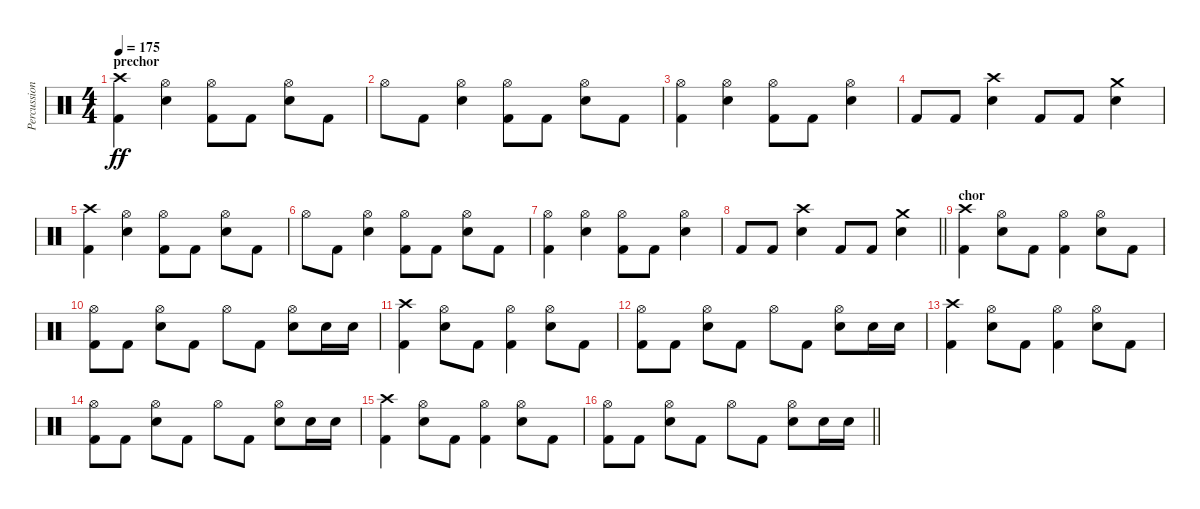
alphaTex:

\track ("Percussion" "Percussion") {instrument percussion}
\staff {score}
\articulation defaults
\ts (4 4)
\section ("" "prechor")
\tempo 175
\clef neutral
\ks c
("Crash high (hit)" "Kick (hit) 2").4{dy ff} ("Hi-Hat (open)" "Snare (hit) 2").4 ("Hi-Hat (open)" "Kick (hit) 2").8 "Kick (hit) 2".8 ("Hi-Hat (open)" "Snare (hit) 2").8 "Kick (hit) 2".8 |
"Hi-Hat (open)".8 "Kick (hit) 2".8 ("Hi-Hat (open)" "Snare (hit) 2").4 ("Hi-Hat (open)" "Kick (hit) 2").8 "Kick (hit) 2".8 ("Hi-Hat (open)" "Snare (hit) 2").8 "Kick (hit) 2".8 |
("Hi-Hat (open)" "Kick (hit) 2").4 ("Hi-Hat (open)" "Snare (hit) 2").4 ("Hi-Hat (open)" "Kick (hit) 2").8 "Kick (hit) 2".8 ("Hi-Hat (open)" "Snare (hit) 2").4 |
"Kick (hit) 2".8 "Kick (hit) 2".8 ("Crash high (hit)" "Snare (hit) 2").4 "Kick (hit) 2".8 "Kick (hit) 2".8 ("Crash medium (hit)" "Snare (hit) 2").4 |
("Crash high (hit)" "Kick (hit) 2").4 ("Hi-Hat (open)" "Snare (hit) 2").4 ("Hi-Hat (open)" "Kick (hit) 2").8 "Kick (hit) 2".8 ("Hi-Hat (open)" "Snare (hit) 2").8 "Kick (hit) 2".8 |
"Hi-Hat (open)".8 "Kick (hit) 2".8 ("Hi-Hat (open)" "Snare (hit) 2").4 ("Hi-Hat (open)" "Kick (hit) 2").8 "Kick (hit) 2".8 ("Hi-Hat (open)" "Snare (hit) 2").8 "Kick (hit) 2".8 |
("Hi-Hat (open)" "Kick (hit) 2").4 ("Hi-Hat (open)" "Snare (hit) 2").4 ("Hi-Hat (open)" "Kick (hit) 2").8 "Kick (hit) 2".8 ("Hi-Hat (open)" "Snare (hit) 2").4 |
\barLineRight lightlight "Kick (hit) 2".8 "Kick (hit) 2".8
("Crash high (hit)" "Snare (hit) 2").4 "Kick (hit) 2".8 "Kick (hit) 2".8 ("Crash medium (hit)" "Snare (hit) 2").4 |
\section ("" "chor")
("Crash high (hit)" "Kick (hit) 2").4 ("Hi-Hat (open)" "Snare (hit) 2").8 "Kick (hit) 2".8 ("Hi-Hat (open)" "Kick (hit) 2").4 ("Hi-Hat (open)" "Snare (hit) 2").8 "Kick (hit) 2".8 |
("Hi-Hat (open)" "Kick (hit) 2").8 "Kick (hit) 2".8 ("Hi-Hat (open)" "Snare (hit) 2").8 "Kick (hit) 2".8 "Hi-Hat (open)".8 "Kick (hit) 2".8 ("Hi-Hat (open)" "Snare (hit) 2").8 "Snare (hit) 2".16 "Snare (hit) 2".16 |
("Crash high (hit)" "Kick (hit) 2").4 ("Hi-Hat (open)" "Snare (hit) 2").8 "Kick (hit) 2".8 ("Hi-Hat (open)" "Kick (hit) 2").4 ("Hi-Hat (open)" "Snare (hit) 2").8 "Kick (hit) 2".8 |
("Hi-Hat (open)" "Kick (hit) 2").8 "Kick (hit) 2".8 ("Hi-Hat (open)" "Snare (hit) 2").8 "Kick (hit) 2".8 "Hi-Hat (open)".8 "Kick (hit) 2".8 ("Hi-Hat (open)" "Snare (hit) 2").8 "Snare (hit) 2".16 "Snare (hit) 2".16 |
("Crash high (hit)" "Kick (hit) 2").4 ("Hi-Hat (open)" "Snare (hit) 2").8 "Kick (hit) 2".8 ("Hi-Hat (open)" "Kick (hit) 2").4 ("Hi-Hat (open)" "Snare (hit) 2").8 "Kick (hit) 2".8 |
("Hi-Hat (open)" "Kick (hit) 2").8 "Kick (hit) 2".8 ("Hi-Hat (open)" "Snare (hit) 2").8 "Kick (hit) 2".8 "Hi-Hat (open)".8 "Kick (hit) 2".8 ("Hi-Hat (open)" "Snare (hit) 2").8 "Snare (hit) 2".16 "Snare (hit) 2".16 |
("Crash high (hit)" "Kick (hit) 2").4 ("Hi-Hat (open)" "Snare (hit) 2").8 "Kick (hit) 2".8 ("Hi-Hat (open)" "Kick (hit) 2").4 ("Hi-Hat (open)" "Snare (hit) 2").8 "Kick (hit) 2".8 |
\barLineRight lightlight
("Hi-Hat (open)" "Kick (hit) 2").8 "Kick (hit) 2".8 ("Hi-Hat (open)" "Snare (hit) 2").8 "Kick (hit) 2".8 "Hi-Hat (open)".8 "Kick (hit) 2".8 ("Hi-Hat (open)" "Snare (hit) 2").8 "Snare (hit) 2".16 "Snare (hit) 2".16
